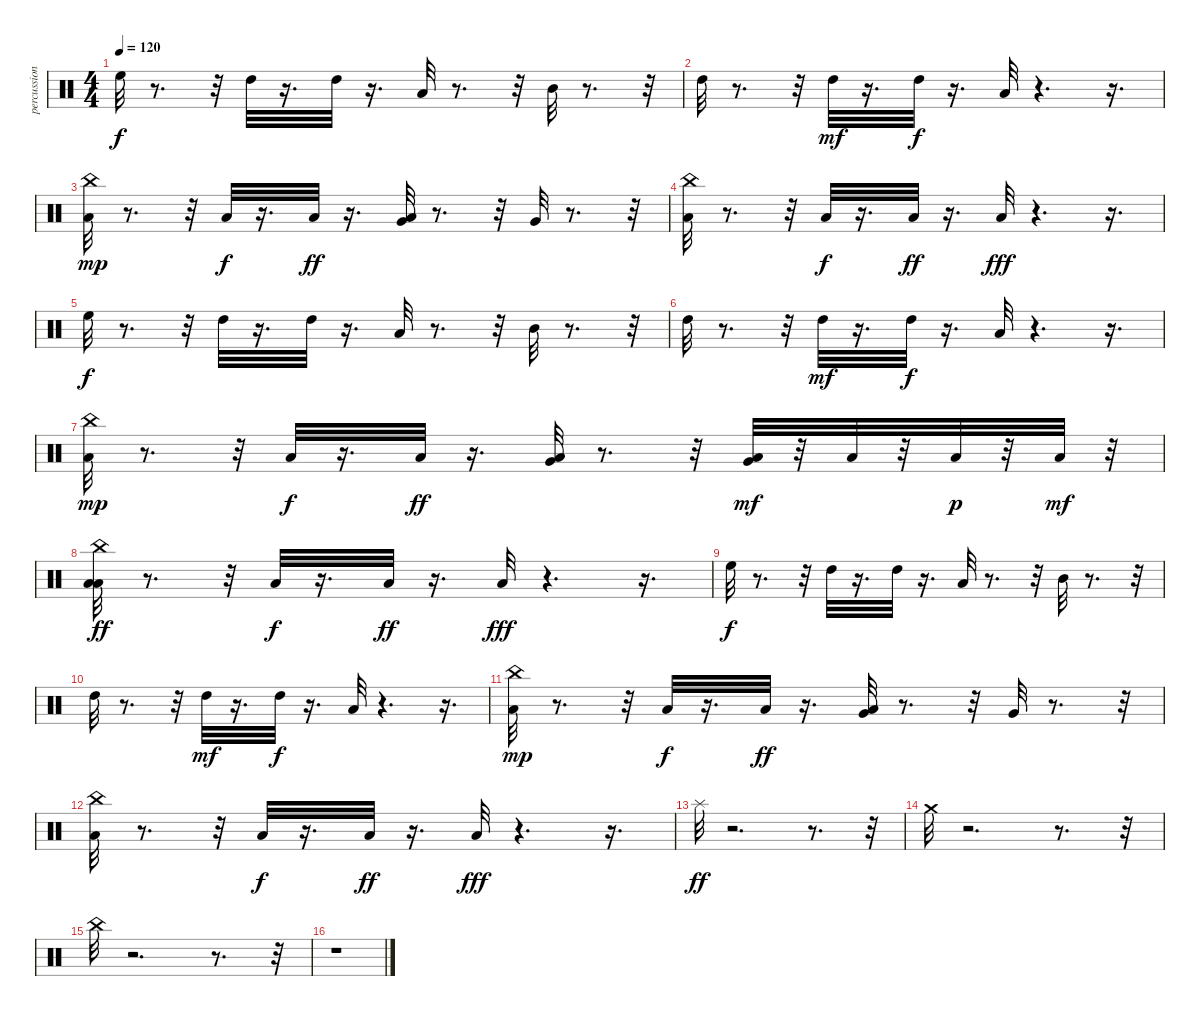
\track ("percussion" "percussion") {instrument percussion}
\staff {score}
\articulation defaults
\ts (4 4)
\tempo 120
\clef neutral
\ks c "High Floor Tom (hit)".32{dy f}
r.8{d} r.32 "High Tom (hit)".32 r.16{d} "High Tom (hit)".32 r.16{d} "Low Tom (hit)".32 r.8{d} r.32 "Mid Tom (hit)".32 r.8{d} r.32 |
"High Tom (hit)".32 r.8{d} r.32 "High Tom (hit)".32{dy mf} r.16{d} "High Tom (hit)".32{dy f} r.16{d} "Low Tom (hit)".32 r.4{d} r.16{d} |
("Low Floor Tom (hit)" "China (hit)").32{dy mp} r.8{d} r.32 "Low Floor Tom (hit)".32{dy f} r.16{d} "Low Floor Tom (hit)".32{dy ff} r.16{d} ("Low Floor Tom (hit)" "Very Low Tom (hit)").32 r.8{d} r.32 "Very Low Tom (hit)".32 r.8{d} r.32 |
("Low Floor Tom (hit)" "China (hit)").32 r.8{d} r.32 "Low Floor Tom (hit)".32{dy f} r.16{d} "Low Floor Tom (hit)".32{dy ff} r.16{d} "Low Floor Tom (hit)".32{dy fff} r.4{d} r.16{d} |
"High Floor Tom (hit)".32{dy f} r.8{d} r.32 "High Tom (hit)".32 r.16{d} "High Tom (hit)".32 r.16{d} "Low Tom (hit)".32 r.8{d} r.32 "Mid Tom (hit)".32 r.8{d} r.32 |
"High Tom (hit)".32 r.8{d} r.32 "High Tom (hit)".32{dy mf} r.16{d} "High Tom (hit)".32{dy f} r.16{d} "Low Tom (hit)".32 r.4{d} r.16{d} |
("Low Floor Tom (hit)" "China (hit)").32{dy mp} r.8{d} r.32 "Low Floor Tom (hit)".32{dy f} r.16{d} "Low Floor Tom (hit)".32{dy ff} r.16{d} ("Low Floor Tom (hit)" "Very Low Tom (hit)").32 r.8{d} r.32 ("Very Low Tom (hit)" "Low Floor Tom (hit)").32{dy mf} r.32 "Low Floor Tom (hit)".32 r.32 "Low Floor Tom (hit)".32{dy p} r.32 "Low Floor Tom (hit)".32{dy mf} r.32 |
("Low Floor Tom (hit)" "China (hit)" "Low Floor Tom (hit)").32{dy ff} r.8{d} r.32 "Low Floor Tom (hit)".32{dy f} r.16{d} "Low Floor Tom (hit)".32{dy ff} r.16{d} "Low Floor Tom (hit)".32{dy fff} r.4{d} r.16{d} |
"High Floor Tom (hit)".32{dy f} r.8{d} r.32 "High Tom (hit)".32 r.16{d} "High Tom (hit)".32 r.16{d} "Low Tom (hit)".32 r.8{d} r.32 "Mid Tom (hit)".32 r.8{d} r.32 |
"High Tom (hit)".32 r.8{d} r.32 "High Tom (hit)".32{dy mf} r.16{d} "High Tom (hit)".32{dy f} r.16{d} "Low Tom (hit)".32 r.4{d} r.16{d} |
("Low Floor Tom (hit)" "China (hit)").32{dy mp} r.8{d} r.32 "Low Floor Tom (hit)".32{dy f} r.16{d} "Low Floor Tom (hit)".32{dy ff} r.16{d} ("Low Floor Tom (hit)" "Very Low Tom (hit)").32 r.8{d} r.32 "Very Low Tom (hit)".32 r.8{d} r.32 |
("Low Floor Tom (hit)" "China (hit)").32 r.8{d} r.32 "Low Floor Tom (hit)".32{dy f} r.16{d} "Low Floor Tom (hit)".32{dy ff} r.16{d} "Low Floor Tom (hit)".32{dy fff} r.4{d} r.16{d} |
"Splash (hit)".32{dy ff} r.2{d} r.8{d} r.32 |
"Crash medium (hit)".32 r.2{d} r.8{d} r.32 |
"China (hit)".32 r.2{d} r.8{d} r.32 |
r.1
